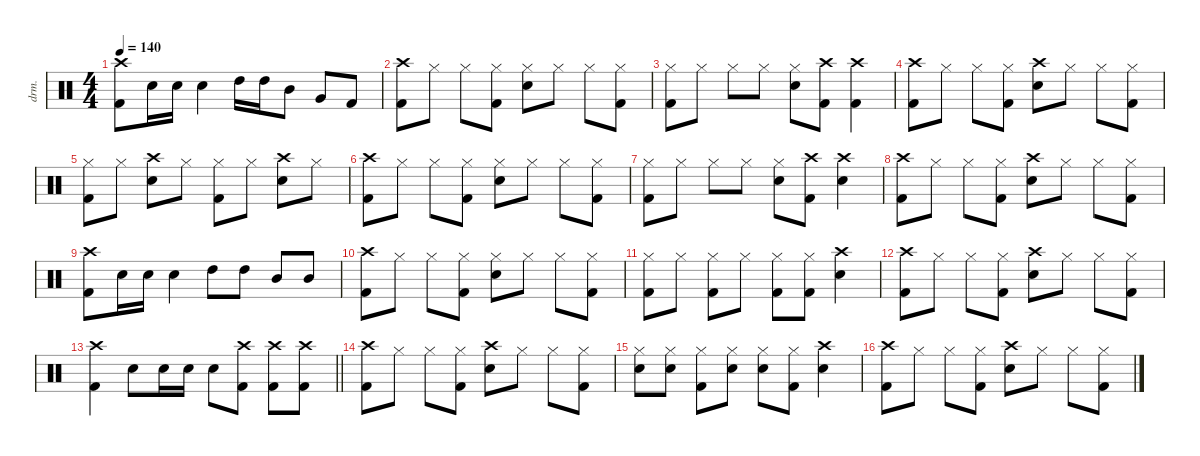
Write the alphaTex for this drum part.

\defaultSystemsLayout 4
\hideDynamics
\bracketExtendMode nobrackets
\otherSystemsTrackNameOrientation horizontal
\track ("Drums" "drm.") {defaultSystemsLayout 4 instrument percussion}
\staff {score}
\articulation defaults
\ts (4 4)
\tempo 140
\clef neutral
\ks aminor
("Crash high (hit)" "Kick (hit) 2").8{dy f beam Down} "Snare (hit) 2".16{beam Down} "Snare (hit) 2".16{beam Down} "Snare (hit) 2".4{beam Down} "High Tom (hit)".16{beam Down} "High Tom (hit)".16{beam Down} "Mid Tom (hit)".8{beam Down} "Very Low Tom (hit)".8{beam Up} "Kick (hit) 2".8{beam Up} |
("Crash high (hit)" "Kick (hit) 2").8{beam Down} "Hi-Hat (closed)".8{beam Down} "Hi-Hat (closed)".8{beam Down} ("Hi-Hat (closed)" "Kick (hit) 2").8{beam Down} ("Hi-Hat (closed)" "Snare (hit) 2").8{beam Down} "Hi-Hat (closed)".8{beam Down} "Hi-Hat (closed)".8{beam Down} ("Hi-Hat (closed)" "Kick (hit) 2").8{beam Down} |
("Hi-Hat (closed)" "Kick (hit) 2").8{beam Down} "Hi-Hat (closed)".8{beam Down} "Hi-Hat (closed)".8{beam Down} "Hi-Hat (closed)".8{beam Down} ("Hi-Hat (closed)" "Snare (hit) 2").8{beam Down} ("Crash high (hit)" "Kick (hit) 2").8{beam Down} ("Crash high (hit)" "Kick (hit) 2").4{beam Down} |
("Crash high (hit)" "Kick (hit) 2").8{beam Down} "Hi-Hat (closed)".8{beam Down} "Hi-Hat (closed)".8{beam Down} ("Hi-Hat (closed)" "Kick (hit) 2").8{beam Down} ("Crash high (hit)" "Snare (hit) 2").8{beam Down} "Hi-Hat (closed)".8{beam Down} "Hi-Hat (closed)".8{beam Down} ("Hi-Hat (closed)" "Kick (hit) 2").8{beam Down} |
("Hi-Hat (closed)" "Kick (hit) 2").8{beam Down} "Hi-Hat (closed)".8{beam Down} ("Crash high (hit)" "Snare (hit) 2").8{beam Down} "Hi-Hat (closed)".8{beam Down} ("Hi-Hat (closed)" "Kick (hit) 2").8{beam Down} "Hi-Hat (closed)".8{beam Down} ("Crash high (hit)" "Snare (hit) 2").8{beam Down} "Hi-Hat (closed)".8{beam Down} |
("Crash high (hit)" "Kick (hit) 2").8{beam Down} "Hi-Hat (closed)".8{beam Down} "Hi-Hat (closed)".8{beam Down} ("Hi-Hat (closed)" "Kick (hit) 2").8{beam Down} ("Hi-Hat (closed)" "Snare (hit) 2").8{beam Down} "Hi-Hat (closed)".8{beam Down} "Hi-Hat (closed)".8{beam Down} ("Hi-Hat (closed)" "Kick (hit) 2").8{beam Down} |
("Hi-Hat (closed)" "Kick (hit) 2").8{beam Down} "Hi-Hat (closed)".8{beam Down} "Hi-Hat (closed)".8{beam Down} "Hi-Hat (closed)".8{beam Down} ("Hi-Hat (closed)" "Snare (hit) 2").8{beam Down} ("Crash high (hit)" "Kick (hit) 2").8{beam Down} ("Crash high (hit)" "Snare (hit) 2").4{beam Down} |
("Crash high (hit)" "Kick (hit) 2").8{beam Down} "Hi-Hat (closed)".8{beam Down} "Hi-Hat (closed)".8{beam Down} ("Hi-Hat (closed)" "Kick (hit) 2").8{beam Down} ("Crash high (hit)" "Snare (hit) 2").8{beam Down} "Hi-Hat (closed)".8{beam Down} "Hi-Hat (closed)".8{beam Down} ("Hi-Hat (closed)" "Kick (hit) 2").8{beam Down} |
("Crash high (hit)" "Kick (hit) 2").8{beam Down} "Snare (hit) 2".16{beam Down} "Snare (hit) 2".16{beam Down} "Snare (hit) 2".4{beam Down} "High Tom (hit)".8{beam Down} "High Tom (hit)".8{beam Down} "Mid Tom (hit)".8{beam Up} "Mid Tom (hit)".8{beam Up} |
("Crash high (hit)" "Kick (hit) 2").8{beam Down} "Hi-Hat (closed)".8{beam Down} "Hi-Hat (closed)".8{beam Down} ("Hi-Hat (closed)" "Kick (hit) 2").8{beam Down} ("Hi-Hat (closed)" "Snare (hit) 2").8{beam Down} "Hi-Hat (closed)".8{beam Down} "Hi-Hat (closed)".8{beam Down} ("Hi-Hat (closed)" "Kick (hit) 2").8{beam Down} |
("Hi-Hat (closed)" "Kick (hit) 2").8{beam Down} "Hi-Hat (closed)".8{beam Down} ("Hi-Hat (closed)" "Kick (hit) 2").8{beam Down} "Hi-Hat (closed)".8{beam Down} ("Hi-Hat (closed)" "Kick (hit) 2").8{beam Down} ("Hi-Hat (closed)" "Kick (hit) 2").8{beam Down} ("Crash high (hit)" "Snare (hit) 2").4{beam Down} |
("Crash high (hit)" "Kick (hit) 2").8{beam Down} "Hi-Hat (closed)".8{beam Down} "Hi-Hat (closed)".8{beam Down} ("Hi-Hat (closed)" "Kick (hit) 2").8{beam Down} ("Crash high (hit)" "Snare (hit) 2").8{beam Down} "Hi-Hat (closed)".8{beam Down} "Hi-Hat (closed)".8{beam Down} ("Hi-Hat (closed)" "Kick (hit) 2").8{beam Down} |
\barLineRight lightlight
("Crash high (hit)" "Kick (hit) 2").4{beam Down} "Snare (hit) 2".8{dy fff beam Down} "Snare (hit) 2".16{dy f beam Down} "Snare (hit) 2".16{beam Down} "Snare (hit) 2".8{beam Down} ("Crash high (hit)" "Kick (hit) 2").8{beam Down} ("Crash high (hit)" "Kick (hit) 2").8{beam Down} ("Crash high (hit)" "Kick (hit) 2").8{beam Down} |
("Crash high (hit)" "Kick (hit) 2").8{beam Down} "Hi-Hat (closed)".8{beam Down} "Hi-Hat (closed)".8{beam Down} ("Hi-Hat (closed)" "Kick (hit) 2").8{beam Down} ("Crash high (hit)" "Snare (hit) 2").8{beam Down} "Hi-Hat (closed)".8{beam Down} "Hi-Hat (closed)".8{beam Down} ("Hi-Hat (closed)" "Kick (hit) 2").8{beam Down} |
("Hi-Hat (closed)" "Snare (hit) 2").8{beam Down} ("Hi-Hat (closed)" "Snare (hit) 2").8{beam Down} ("Hi-Hat (closed)" "Kick (hit) 2").8{beam Down} ("Hi-Hat (closed)" "Snare (hit) 2").8{beam Down} ("Hi-Hat (closed)" "Snare (hit) 2").8{beam Down} ("Hi-Hat (closed)" "Kick (hit) 2").8{beam Down} ("Crash high (hit)" "Snare (hit) 2").4{beam Down} |
("Crash high (hit)" "Kick (hit) 2").8{beam Down} "Hi-Hat (closed)".8{beam Down} "Hi-Hat (closed)".8{beam Down} ("Hi-Hat (closed)" "Kick (hit) 2").8{beam Down} ("Crash high (hit)" "Snare (hit) 2").8{beam Down} "Hi-Hat (closed)".8{beam Down} "Hi-Hat (closed)".8{beam Down} ("Hi-Hat (closed)" "Kick (hit) 2").8{beam Down}
